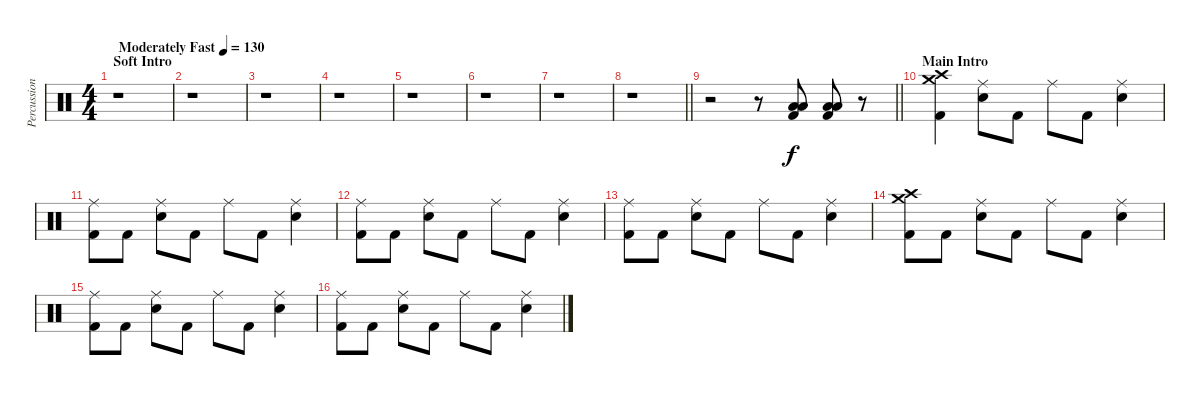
\track ("Percussion" "Percussion") {instrument percussion}
\staff {score}
\articulation defaults
\ts (4 4)
\section ("" "Soft Intro")
\tempo (130 "Moderately Fast")
\clef neutral
\ks c
r.1{dy f} |
r.1 |
r.1 |
r.1 |
r.1 |
r.1 |
r.1 |
\barLineRight lightlight
r.1 |
\barLineRight lightlight
r.2 r.8 ("Low Tom (hit)" "Low Floor Tom (hit)" "Kick (hit) 2").8 ("Low Tom (hit)" "Low Floor Tom (hit)" "Kick (hit) 2").8 r.8 |
\section ("" "Main Intro")
("Crash high (hit)" "Crash medium (hit)" "Kick (hit) 2").4 ("Ride (middle)" "Snare (hit) 2").8 "Kick (hit) 2".8 "Ride (middle)".8 "Kick (hit) 2".8 ("Ride (middle)" "Snare (hit) 2").4 |
("Ride (middle)" "Kick (hit) 2").8 "Kick (hit) 2".8 ("Ride (middle)" "Snare (hit) 2").8 "Kick (hit) 2".8 "Ride (middle)".8 "Kick (hit) 2".8 ("Ride (middle)" "Snare (hit) 2").4 |
("Ride (middle)" "Kick (hit) 2").8 "Kick (hit) 2".8 ("Ride (middle)" "Snare (hit) 2").8 "Kick (hit) 2".8 "Ride (middle)".8 "Kick (hit) 2".8 ("Ride (middle)" "Snare (hit) 2").4 |
("Ride (middle)" "Kick (hit) 2").8 "Kick (hit) 2".8 ("Ride (middle)" "Snare (hit) 2").8 "Kick (hit) 2".8 "Ride (middle)".8 "Kick (hit) 2".8 ("Ride (middle)" "Snare (hit) 2").4 |
("Crash high (hit)" "Crash medium (hit)" "Kick (hit) 2").8 "Kick (hit) 2".8 ("Ride (middle)" "Snare (hit) 2").8 "Kick (hit) 2".8 "Ride (middle)".8 "Kick (hit) 2".8 ("Ride (middle)" "Snare (hit) 2").4 |
("Ride (middle)" "Kick (hit) 2").8 "Kick (hit) 2".8 ("Ride (middle)" "Snare (hit) 2").8 "Kick (hit) 2".8 "Ride (middle)".8 "Kick (hit) 2".8 ("Ride (middle)" "Snare (hit) 2").4 |
("Ride (middle)" "Kick (hit) 2").8 "Kick (hit) 2".8 ("Ride (middle)" "Snare (hit) 2").8 "Kick (hit) 2".8 "Ride (middle)".8 "Kick (hit) 2".8 ("Ride (middle)" "Snare (hit) 2").4
